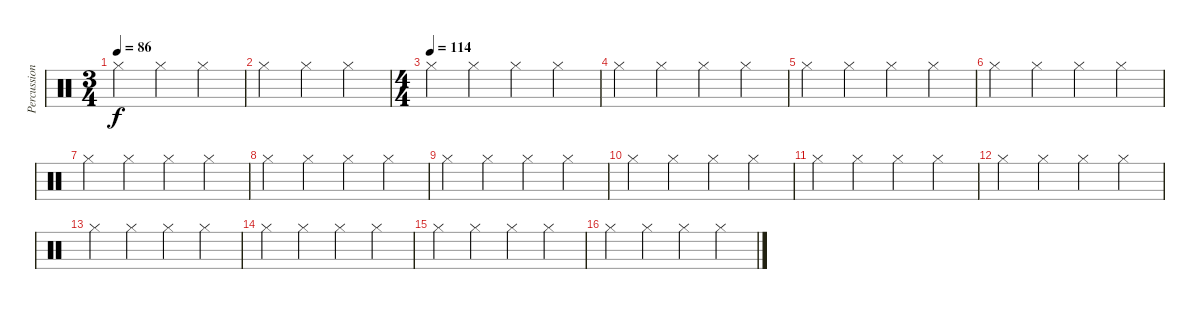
\track ("Percussion" "Percussion") {instrument percussion}
\staff {score}
\articulation defaults
\ts (3 4)
\tempo 86
\clef neutral
\ks c "Hi-Hat (closed)".4{dy f} "Hi-Hat (closed)".4 "Hi-Hat (closed)".4
|
"Hi-Hat (closed)".4 "Hi-Hat (closed)".4 "Hi-Hat (closed)".4 |
\ts (4 4)
\tempo (114)
"Hi-Hat (closed)".4 "Hi-Hat (closed)".4 "Hi-Hat (closed)".4 "Hi-Hat (closed)".4 |
"Hi-Hat (closed)".4 "Hi-Hat (closed)".4 "Hi-Hat (closed)".4 "Hi-Hat (closed)".4 |
"Hi-Hat (closed)".4 "Hi-Hat (closed)".4 "Hi-Hat (closed)".4 "Hi-Hat (closed)".4 |
"Hi-Hat (closed)".4 "Hi-Hat (closed)".4 "Hi-Hat (closed)".4 "Hi-Hat (closed)".4 |
"Hi-Hat (closed)".4 "Hi-Hat (closed)".4 "Hi-Hat (closed)".4 "Hi-Hat (closed)".4 |
"Hi-Hat (closed)".4 "Hi-Hat (closed)".4 "Hi-Hat (closed)".4 "Hi-Hat (closed)".4 |
"Hi-Hat (closed)".4 "Hi-Hat (closed)".4 "Hi-Hat (closed)".4 "Hi-Hat (closed)".4 |
"Hi-Hat (closed)".4 "Hi-Hat (closed)".4 "Hi-Hat (closed)".4 "Hi-Hat (closed)".4 |
"Hi-Hat (closed)".4 "Hi-Hat (closed)".4 "Hi-Hat (closed)".4 "Hi-Hat (closed)".4 |
"Hi-Hat (closed)".4 "Hi-Hat (closed)".4 "Hi-Hat (closed)".4 "Hi-Hat (closed)".4 |
"Hi-Hat (closed)".4 "Hi-Hat (closed)".4 "Hi-Hat (closed)".4 "Hi-Hat (closed)".4 |
"Hi-Hat (closed)".4 "Hi-Hat (closed)".4 "Hi-Hat (closed)".4 "Hi-Hat (closed)".4 |
"Hi-Hat (closed)".4 "Hi-Hat (closed)".4 "Hi-Hat (closed)".4 "Hi-Hat (closed)".4 |
"Hi-Hat (closed)".4 "Hi-Hat (closed)".4 "Hi-Hat (closed)".4 "Hi-Hat (closed)".4
